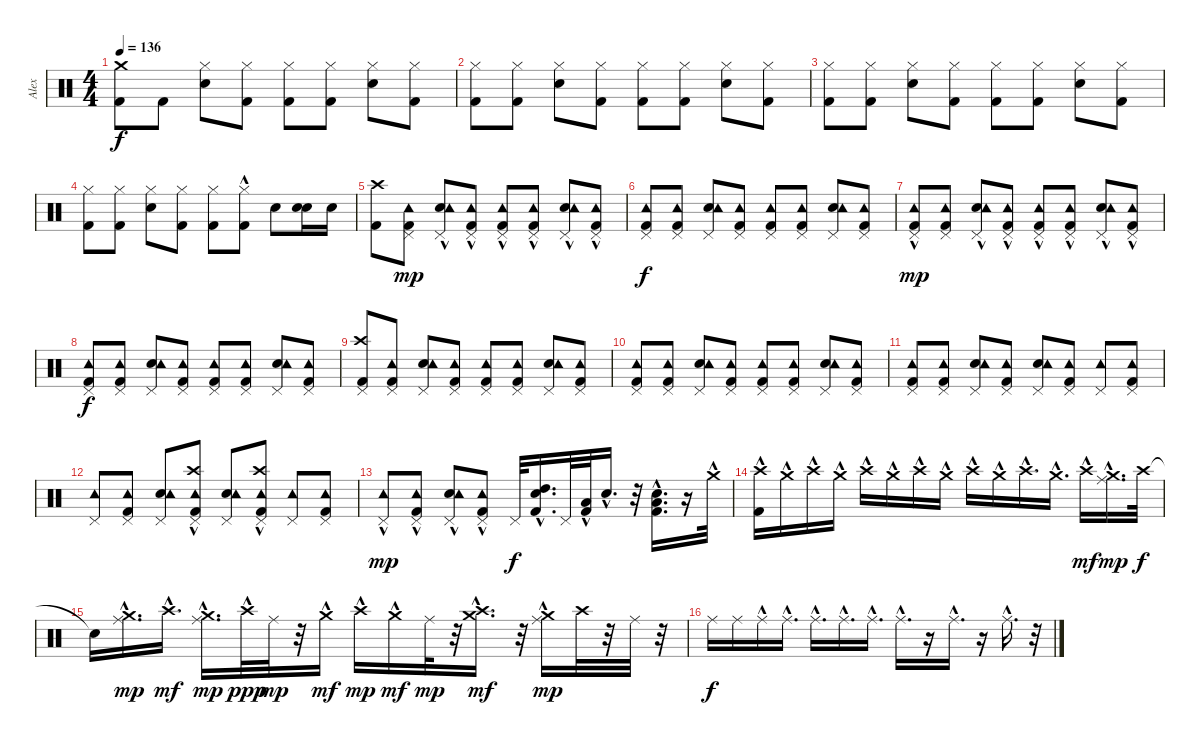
\track ("Alex" "Alex") {instrument percussion}
\staff {score}
\articulation defaults
\ts (4 4)
\tempo 136
\clef neutral
\ks c
("Kick (hit) 2" "Crash medium (hit)").8{dy f} "Kick (hit) 2".8 ("Hi-Hat (closed)" "Snare (hit) 2").8 ("Kick (hit) 2" "Hi-Hat (closed)").8 ("Hi-Hat (closed)" "Kick (hit) 2").8 ("Kick (hit) 2" "Hi-Hat (closed)").8 ("Snare (hit) 2" "Hi-Hat (closed)").8 ("Hi-Hat (closed)" "Kick (hit) 2").8 |
("Hi-Hat (closed)" "Kick (hit) 2").8 ("Hi-Hat (closed)" "Kick (hit) 2").8 ("Hi-Hat (closed)" "Snare (hit) 2").8 ("Kick (hit) 2" "Hi-Hat (closed)").8 ("Hi-Hat (closed)" "Kick (hit) 2").8 ("Hi-Hat (closed)" "Kick (hit) 2").8 ("Hi-Hat (closed)" "Snare (hit) 2").8 ("Hi-Hat (closed)" "Kick (hit) 2").8 |
("Kick (hit) 2" "Hi-Hat (closed)").8 ("Kick (hit) 2" "Hi-Hat (closed)").8 ("Snare (hit) 2" "Hi-Hat (closed)").8 ("Kick (hit) 2" "Hi-Hat (closed)").8 ("Hi-Hat (closed)" "Kick (hit) 2").8 ("Hi-Hat (closed)" "Kick (hit) 2").8 ("Snare (hit) 2" "Hi-Hat (closed)").8 ("Hi-Hat (closed)" "Kick (hit) 2").8 |
("Kick (hit) 2" "Hi-Hat (closed)").8 ("Hi-Hat (closed)" "Kick (hit) 2").8 ("Snare (hit) 2" "Hi-Hat (closed)").8 ("Hi-Hat (closed)" "Kick (hit) 2").8 ("Hi-Hat (closed)" "Kick (hit) 2").8 ("Hi-Hat (closed)" "Kick (hit) 2"{hac}).8 "Snare (hit) 2".8 ("Snare (hit) 2" "Snare (hit) 2").16 "Snare (hit) 2".16 |
("Crash high (hit)" "Kick (hit) 2").8 ("Kick (hit) 2" "Pedal Hi-Hat (hit)" "Tambourine (hit)").8{dy mp} ("Snare (hit) 2" "Pedal Hi-Hat (hit)" "Tambourine (hit)"{hac}).8 ("Kick (hit) 2" "Pedal Hi-Hat (hit)" "Tambourine (hit)"{hac}).8 ("Pedal Hi-Hat (hit)" "Kick (hit) 2" "Tambourine (hit)"{hac}).8 ("Kick (hit) 2" "Pedal Hi-Hat (hit)" "Tambourine (hit)"{hac}).8 ("Snare (hit) 2" "Pedal Hi-Hat (hit)" "Tambourine (hit)"{hac}).8 ("Kick (hit) 2" "Pedal Hi-Hat (hit)" "Tambourine (hit)"{hac}).8 |
("Kick (hit) 2" "Pedal Hi-Hat (hit)" "Tambourine (hit)").8{dy f} ("Kick (hit) 2" "Pedal Hi-Hat (hit)" "Tambourine (hit)").8 ("Snare (hit) 2" "Pedal Hi-Hat (hit)" "Tambourine (hit)").8 ("Kick (hit) 2" "Pedal Hi-Hat (hit)" "Tambourine (hit)").8 ("Kick (hit) 2" "Pedal Hi-Hat (hit)" "Tambourine (hit)").8 ("Kick (hit) 2" "Pedal Hi-Hat (hit)" "Tambourine (hit)").8 ("Snare (hit) 2" "Pedal Hi-Hat (hit)" "Tambourine (hit)").8 ("Kick (hit) 2" "Pedal Hi-Hat (hit)" "Tambourine (hit)").8 |
("Kick (hit) 2" "Pedal Hi-Hat (hit)" "Tambourine (hit)"{hac}).8{dy mp} ("Kick (hit) 2" "Pedal Hi-Hat (hit)" "Tambourine (hit)").8 ("Snare (hit) 2" "Pedal Hi-Hat (hit)" "Tambourine (hit)"{hac}).8 ("Kick (hit) 2" "Pedal Hi-Hat (hit)" "Tambourine (hit)"{hac}).8 ("Kick (hit) 2" "Pedal Hi-Hat (hit)" "Tambourine (hit)"{hac}).8 ("Kick (hit) 2" "Pedal Hi-Hat (hit)" "Tambourine (hit)"{hac}).8 ("Snare (hit) 2" "Pedal Hi-Hat (hit)" "Tambourine (hit)"{hac}).8 ("Kick (hit) 2" "Pedal Hi-Hat (hit)" "Tambourine (hit)"{hac}).8 |
("Kick (hit) 2" "Pedal Hi-Hat (hit)" "Tambourine (hit)").8{dy f} ("Kick (hit) 2" "Pedal Hi-Hat (hit)" "Tambourine (hit)").8 ("Snare (hit) 2" "Pedal Hi-Hat (hit)" "Tambourine (hit)").8 ("Kick (hit) 2" "Pedal Hi-Hat (hit)" "Tambourine (hit)").8 ("Kick (hit) 2" "Pedal Hi-Hat (hit)" "Tambourine (hit)").8 ("Kick (hit) 2" "Pedal Hi-Hat (hit)" "Tambourine (hit)").8 ("Snare (hit) 2" "Pedal Hi-Hat (hit)" "Tambourine (hit)").8 ("Kick (hit) 2" "Pedal Hi-Hat (hit)" "Tambourine (hit)").8 |
("Kick (hit) 2" "Crash high (hit)" "Pedal Hi-Hat (hit)").8 ("Kick (hit) 2" "Pedal Hi-Hat (hit)" "Tambourine (hit)").8 ("Snare (hit) 2" "Pedal Hi-Hat (hit)" "Tambourine (hit)").8 ("Kick (hit) 2" "Pedal Hi-Hat (hit)" "Tambourine (hit)").8 ("Kick (hit) 2" "Pedal Hi-Hat (hit)" "Tambourine (hit)").8 ("Kick (hit) 2" "Pedal Hi-Hat (hit)" "Tambourine (hit)").8 ("Snare (hit) 2" "Pedal Hi-Hat (hit)" "Tambourine (hit)").8 ("Kick (hit) 2" "Pedal Hi-Hat (hit)" "Tambourine (hit)").8 |
("Kick (hit) 2" "Pedal Hi-Hat (hit)" "Tambourine (hit)").8 ("Kick (hit) 2" "Pedal Hi-Hat (hit)" "Tambourine (hit)").8 ("Snare (hit) 2" "Pedal Hi-Hat (hit)" "Tambourine (hit)").8 ("Kick (hit) 2" "Pedal Hi-Hat (hit)" "Tambourine (hit)").8 ("Kick (hit) 2" "Pedal Hi-Hat (hit)" "Tambourine (hit)").8 ("Kick (hit) 2" "Pedal Hi-Hat (hit)" "Tambourine (hit)").8 ("Snare (hit) 2" "Pedal Hi-Hat (hit)" "Tambourine (hit)").8 ("Kick (hit) 2" "Pedal Hi-Hat (hit)" "Tambourine (hit)").8 |
("Kick (hit) 2" "Pedal Hi-Hat (hit)" "Tambourine (hit)").8 ("Pedal Hi-Hat (hit)" "Kick (hit) 2" "Tambourine (hit)").8 ("Pedal Hi-Hat (hit)" "Snare (hit) 2" "Tambourine (hit)").8 ("Kick (hit) 2" "Pedal Hi-Hat (hit)" "Tambourine (hit)").8 ("Pedal Hi-Hat (hit)" "Snare (hit) 2" "Tambourine (hit)").8 ("Kick (hit) 2" "Pedal Hi-Hat (hit)" "Tambourine (hit)").8 ("Pedal Hi-Hat (hit)" "Tambourine (hit)").8 ("Kick (hit) 2" "Pedal Hi-Hat (hit)" "Tambourine (hit)").8 |
("Pedal Hi-Hat (hit)" "Tambourine (hit)").8 ("Kick (hit) 2" "Pedal Hi-Hat (hit)" "Tambourine (hit)").8 ("Snare (hit) 2" "Pedal Hi-Hat (hit)" "Tambourine (hit)").8 ("Crash high (hit)"{hac} "Kick (hit) 2" "Pedal Hi-Hat (hit)" "Tambourine (hit)").8 ("Snare (hit) 2" "Pedal Hi-Hat (hit)" "Tambourine (hit)").8 ("Crash high (hit)"{hac} "Kick (hit) 2" "Pedal Hi-Hat (hit)" "Tambourine (hit)").8 ("Pedal Hi-Hat (hit)" "Tambourine (hit)").8 ("Kick (hit) 2" "Pedal Hi-Hat (hit)" "Tambourine (hit)").8 |
("Pedal Hi-Hat (hit)" "Tambourine (hit)"{hac}).8{dy mp} ("Pedal Hi-Hat (hit)" "Kick (hit) 2" "Tambourine (hit)"{hac}).8 ("Pedal Hi-Hat (hit)" "Snare (hit) 2" "Tambourine (hit)"{hac}).8 ("Kick (hit) 2" "Pedal Hi-Hat (hit)" "Tambourine (hit)"{hac}).8 "Pedal Hi-Hat (hit)".32{dy f} ("Kick (hit) 2"{hac} "High Tom (hit)"{hac} "Snare (hit) 2"{hac}).16{d} "Pedal Hi-Hat (hit)".32 ("Low Tom (hit)"{hac} "Kick (hit) 2"{hac}).32 "Snare (hit) 2"{hac}.16{d} r.32 ("Low Floor Tom (hit)"{hac} "Kick (hit) 2"{hac} "Snare (hit) 2"{hac}).16{d} r.16 "Crash medium (hit)"{hac}.32 |
("Kick (hit) 2" "Crash high (hit)"{hac}).16 "Crash medium (hit)"{hac}.16 "Crash high (hit)"{hac}.16 "Crash medium (hit)"{hac}.16 "Crash high (hit)"{hac}.16 "Crash medium (hit)"{hac}.16 "Crash high (hit)"{hac}.16 "Crash medium (hit)"{hac}.16 "Crash high (hit)"{hac}.16 "Crash medium (hit)"{hac}.16 "Crash high (hit)"{hac}.16{d} "Crash medium (hit)"{hac}.16{d} "Crash high (hit)"{hac}.16{dy mf} ("Ride (middle)" "Crash medium (hit)"{hac}).16{d dy mp} "Crash high (hit)".32{dy f} |
"Snare (hit)"{t}.16 ("Crash medium (hit)"{hac} "Ride (middle)").16{d dy mp} "Crash high (hit)"{hac}.16{d dy mf} ("Crash medium (hit)"{hac} "Ride (middle)").16{d dy mp} "Crash high (hit)"{hac}.32{dy ppp} "Ride (middle)".32{dy mp} r.32 "Crash medium (hit)"{hac}.16{dy mf} "Crash high (hit)"{hac}.16{dy mp} "Crash medium (hit)"{hac}.16{dy mf} "Ride (middle)".32{dy mp} r.32 ("Crash high (hit)" "Crash medium (hit)"{hac}).16{d dy mf} r.32 ("Ride (middle)"{hac} "Crash medium (hit)").16{dy mp} "Crash high (hit)".32 r.32 "Ride (middle)".32 r.32 |
"Ride (middle)".16{dy f} "Ride (middle)".16 "Ride (middle)"{hac}.16 "Ride (middle)"{hac}.16{d} "Ride (middle)"{hac}.16{d} "Ride (middle)"{hac}.16{d} "Ride (middle)"{hac}.16{d} "Ride (middle)"{hac}.16{d} r.16 "Ride (middle)"{hac}.16{d} r.16 "Ride (middle)"{hac}.16{d} r.32
